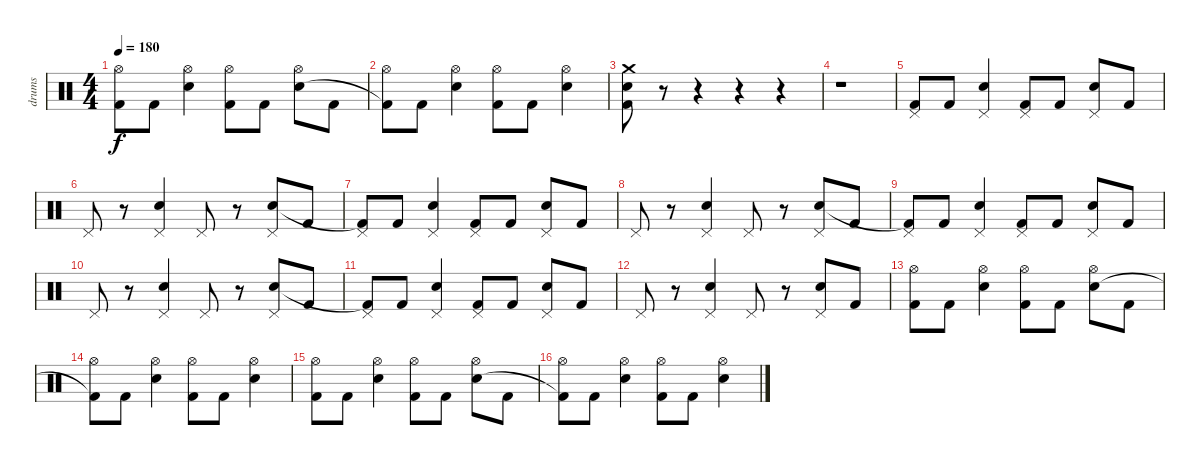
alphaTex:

\track ("drums" "drums") {instrument percussion}
\staff {score}
\articulation defaults
\ts (4 4)
\tempo 180
\clef neutral
\ks c
("Hi-Hat (open)" "Kick (hit) 2").8{dy f} "Kick (hit) 2".8 ("Hi-Hat (open)" "Electric Snare (hit)").4 ("Hi-Hat (open)" "Kick (hit) 2").8 "Kick (hit) 2".8 ("Hi-Hat (open)" "Electric Snare (hit)").8 "Kick (hit) 2".8 |
("Hi-Hat (open)" "Kick (hit) 2"{t}).8 "Kick (hit) 2".8 ("Hi-Hat (open)" "Electric Snare (hit)").4 ("Hi-Hat (open)" "Kick (hit) 2").8 "Kick (hit) 2".8 ("Hi-Hat (open)" "Electric Snare (hit)").4 |
("Crash medium (hit)" "Electric Snare (hit)" "Kick (hit) 2").8 r.8 r.4 r.4 r.4 |
r.1 |
("Pedal Hi-Hat (hit)" "Kick (hit) 2").8 "Kick (hit) 2".8 ("Pedal Hi-Hat (hit)" "Electric Snare (hit)").4 ("Pedal Hi-Hat (hit)" "Kick (hit) 2").8 "Kick (hit) 2".8 ("Pedal Hi-Hat (hit)" "Electric Snare (hit)").8 "Kick (hit) 2".8 |
"Pedal Hi-Hat (hit)".8 r.8 ("Pedal Hi-Hat (hit)" "Electric Snare (hit)").4 "Pedal Hi-Hat (hit)".8 r.8 ("Pedal Hi-Hat (hit)" "Electric Snare (hit)").8 "Kick (hit) 2".8 |
("Pedal Hi-Hat (hit)" "Kick (hit) 2"{t}).8 "Kick (hit) 2".8 ("Pedal Hi-Hat (hit)" "Electric Snare (hit)").4 ("Pedal Hi-Hat (hit)" "Kick (hit) 2").8 "Kick (hit) 2".8 ("Pedal Hi-Hat (hit)" "Electric Snare (hit)").8 "Kick (hit) 2".8 |
"Pedal Hi-Hat (hit)".8 r.8 ("Pedal Hi-Hat (hit)" "Electric Snare (hit)").4 "Pedal Hi-Hat (hit)".8 r.8 ("Pedal Hi-Hat (hit)" "Electric Snare (hit)").8 "Kick (hit) 2".8 |
("Pedal Hi-Hat (hit)" "Kick (hit) 2"{t}).8 "Kick (hit) 2".8 ("Pedal Hi-Hat (hit)" "Electric Snare (hit)").4 ("Pedal Hi-Hat (hit)" "Kick (hit) 2").8 "Kick (hit) 2".8 ("Pedal Hi-Hat (hit)" "Electric Snare (hit)").8 "Kick (hit) 2".8 |
"Pedal Hi-Hat (hit)".8 r.8 ("Pedal Hi-Hat (hit)" "Electric Snare (hit)").4 "Pedal Hi-Hat (hit)".8 r.8 ("Pedal Hi-Hat (hit)" "Electric Snare (hit)").8 "Kick (hit) 2".8 |
("Pedal Hi-Hat (hit)" "Kick (hit) 2"{t}).8 "Kick (hit) 2".8 ("Pedal Hi-Hat (hit)" "Electric Snare (hit)").4 ("Pedal Hi-Hat (hit)" "Kick (hit) 2").8 "Kick (hit) 2".8 ("Pedal Hi-Hat (hit)" "Electric Snare (hit)").8 "Kick (hit) 2".8 |
"Pedal Hi-Hat (hit)".8 r.8 ("Pedal Hi-Hat (hit)" "Electric Snare (hit)").4 "Pedal Hi-Hat (hit)".8 r.8 ("Pedal Hi-Hat (hit)" "Electric Snare (hit)").8 "Kick (hit) 2".8 |
("Hi-Hat (open)" "Kick (hit) 2").8 "Kick (hit) 2".8 ("Hi-Hat (open)" "Electric Snare (hit)").4 ("Hi-Hat (open)" "Kick (hit) 2").8 "Kick (hit) 2".8 ("Hi-Hat (open)" "Electric Snare (hit)").8 "Kick (hit) 2".8 |
("Hi-Hat (open)" "Kick (hit) 2"{t}).8 "Kick (hit) 2".8 ("Hi-Hat (open)" "Electric Snare (hit)").4 ("Hi-Hat (open)" "Kick (hit) 2").8 "Kick (hit) 2".8 ("Hi-Hat (open)" "Electric Snare (hit)").4 |
("Hi-Hat (open)" "Kick (hit) 2").8 "Kick (hit) 2".8 ("Hi-Hat (open)" "Electric Snare (hit)").4 ("Hi-Hat (open)" "Kick (hit) 2").8 "Kick (hit) 2".8 ("Hi-Hat (open)" "Electric Snare (hit)").8 "Kick (hit) 2".8 |
("Hi-Hat (open)" "Kick (hit) 2"{t}).8 "Kick (hit) 2".8 ("Hi-Hat (open)" "Electric Snare (hit)").4 ("Hi-Hat (open)" "Kick (hit) 2").8 "Kick (hit) 2".8 ("Hi-Hat (open)" "Electric Snare (hit)").4
